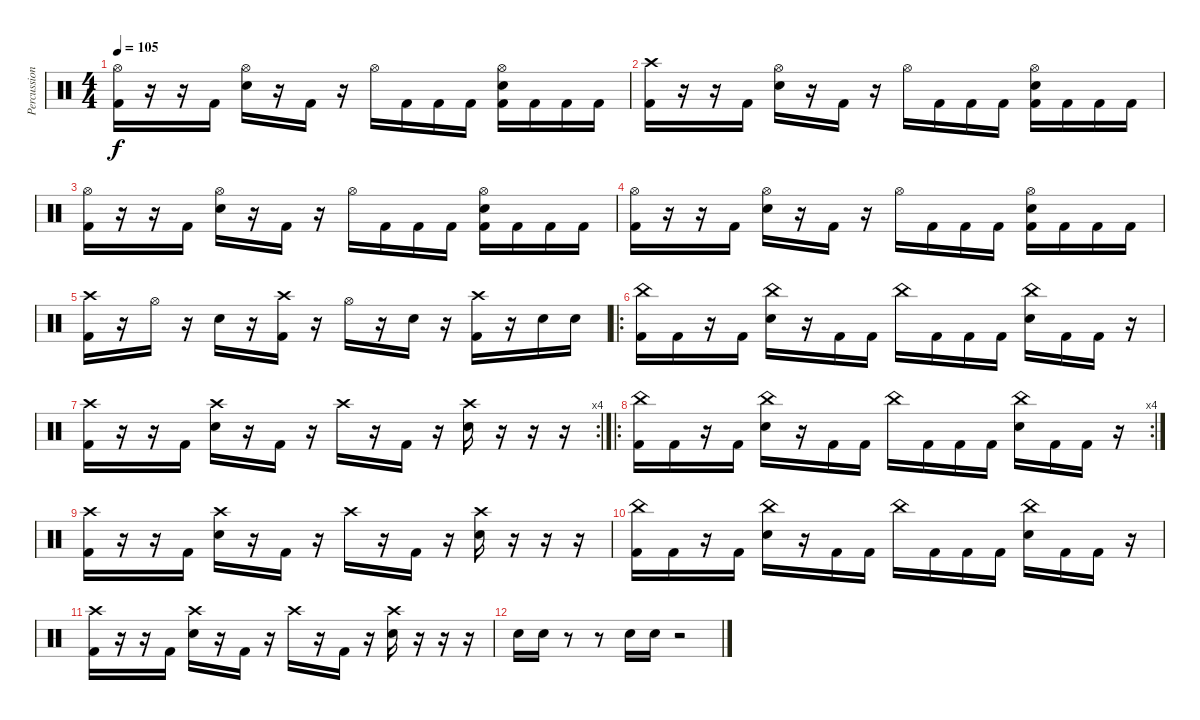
\track ("Percussion" "Percussion") {instrument percussion}
\staff {score}
\articulation defaults
\ts (4 4)
\tempo 105
\clef neutral
\ks c
("Hi-Hat (open)" "Kick (hit) 2").16{dy f} r.16 r.16 "Kick (hit) 2".16 ("Hi-Hat (open)" "Snare (hit) 2").16 r.16 "Kick (hit) 2".16 r.16 "Hi-Hat (open)".16 "Kick (hit) 2".16 "Kick (hit) 2".16 "Kick (hit) 2".16 ("Hi-Hat (open)" "Snare (hit) 2" "Kick (hit) 2").16 "Kick (hit) 2".16 "Kick (hit) 2".16 "Kick (hit) 2".16 |
("Crash high (hit)" "Kick (hit) 2").16 r.16 r.16 "Kick (hit) 2".16 ("Hi-Hat (open)" "Snare (hit) 2").16 r.16 "Kick (hit) 2".16 r.16 "Hi-Hat (open)".16 "Kick (hit) 2".16 "Kick (hit) 2".16 "Kick (hit) 2".16 ("Hi-Hat (open)" "Snare (hit) 2" "Kick (hit) 2").16 "Kick (hit) 2".16 "Kick (hit) 2".16 "Kick (hit) 2".16 |
("Hi-Hat (open)" "Kick (hit) 2").16 r.16 r.16 "Kick (hit) 2".16 ("Hi-Hat (open)" "Snare (hit) 2").16 r.16 "Kick (hit) 2".16 r.16 "Hi-Hat (open)".16 "Kick (hit) 2".16 "Kick (hit) 2".16 "Kick (hit) 2".16 ("Hi-Hat (open)" "Snare (hit) 2" "Kick (hit) 2").16 "Kick (hit) 2".16 "Kick (hit) 2".16 "Kick (hit) 2".16 |
("Hi-Hat (open)" "Kick (hit) 2").16 r.16 r.16 "Kick (hit) 2".16 ("Hi-Hat (open)" "Snare (hit) 2").16 r.16 "Kick (hit) 2".16 r.16 "Hi-Hat (open)".16 "Kick (hit) 2".16 "Kick (hit) 2".16 "Kick (hit) 2".16 ("Hi-Hat (open)" "Snare (hit) 2" "Kick (hit) 2").16 "Kick (hit) 2".16 "Kick (hit) 2".16 "Kick (hit) 2".16 |
("Crash high (hit)" "Kick (hit) 2").16 r.16 "Hi-Hat (open)".16 r.16 "Snare (hit) 2".16 r.16 ("Crash high (hit)" "Kick (hit) 2").16 r.16 "Hi-Hat (open)".16 r.16 "Snare (hit) 2".16 r.16 ("Crash high (hit)" "Kick (hit) 2").16 r.16 "Snare (hit) 2".16 "Snare (hit) 2".16 |
\ro
("China (hit)" "Kick (hit) 2").16 "Kick (hit) 2".16 r.16 "Kick (hit) 2".16 ("China (hit)" "Snare (hit) 2").16 r.16 "Kick (hit) 2".16 "Kick (hit) 2".16 "China (hit)".16 "Kick (hit) 2".16 "Kick (hit) 2".16 "Kick (hit) 2".16 ("China (hit)" "Snare (hit) 2").16 "Kick (hit) 2".16 "Kick (hit) 2".16 r.16 |
\rc 4
("Crash high (hit)" "Kick (hit) 2").16 r.16 r.16 "Kick (hit) 2".16 ("Crash high (hit)" "Snare (hit) 2").16 r.16 "Kick (hit) 2".16 r.16 "Crash high (hit)".16 r.16 "Kick (hit) 2".16 r.16 ("Crash high (hit)" "Snare (hit) 2").16 r.16 r.16 r.16 |
\ro
\rc 4
("China (hit)" "Kick (hit) 2").16 "Kick (hit) 2".16 r.16 "Kick (hit) 2".16 ("China (hit)" "Snare (hit) 2").16 r.16 "Kick (hit) 2".16 "Kick (hit) 2".16 "China (hit)".16 "Kick (hit) 2".16 "Kick (hit) 2".16 "Kick (hit) 2".16 ("China (hit)" "Snare (hit) 2").16 "Kick (hit) 2".16 "Kick (hit) 2".16 r.16 |
("Crash high (hit)" "Kick (hit) 2").16 r.16 r.16 "Kick (hit) 2".16 ("Crash high (hit)" "Snare (hit) 2").16 r.16 "Kick (hit) 2".16 r.16 "Crash high (hit)".16 r.16 "Kick (hit) 2".16 r.16 ("Crash high (hit)" "Snare (hit) 2").16 r.16 r.16 r.16 |
("China (hit)" "Kick (hit) 2").16 "Kick (hit) 2".16 r.16 "Kick (hit) 2".16 ("China (hit)" "Snare (hit) 2").16 r.16 "Kick (hit) 2".16 "Kick (hit) 2".16 "China (hit)".16 "Kick (hit) 2".16 "Kick (hit) 2".16 "Kick (hit) 2".16 ("China (hit)" "Snare (hit) 2").16 "Kick (hit) 2".16 "Kick (hit) 2".16 r.16 |
("Crash high (hit)" "Kick (hit) 2").16 r.16 r.16 "Kick (hit) 2".16 ("Crash high (hit)" "Snare (hit) 2").16 r.16 "Kick (hit) 2".16 r.16 "Crash high (hit)".16 r.16 "Kick (hit) 2".16 r.16 ("Crash high (hit)" "Snare (hit) 2").16 r.16 r.16 r.16 |
"Snare (hit) 2".16 "Snare (hit) 2".16 r.8 r.8 "Snare (hit) 2".16 "Snare (hit) 2".16 r.2
